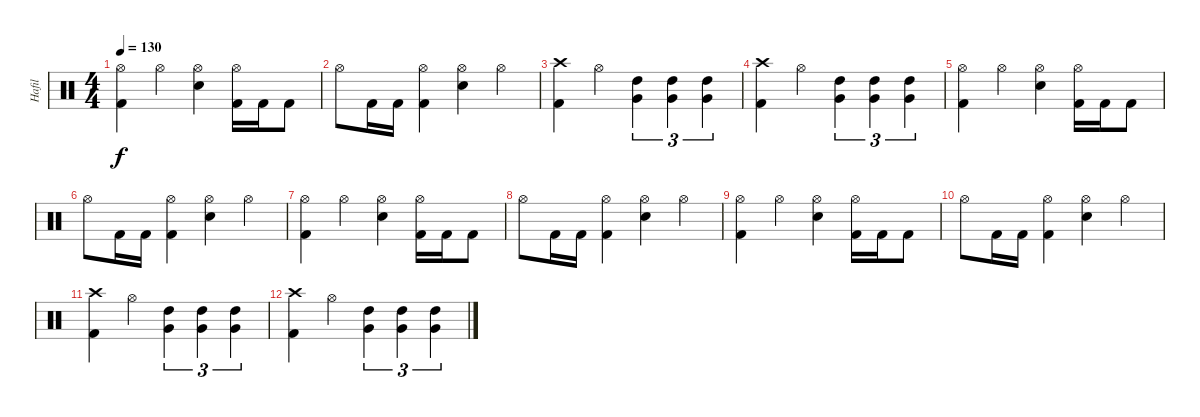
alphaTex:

\track ("Hafil" "Hafil") {instrument percussion}
\staff {score}
\articulation defaults
\ts (4 4)
\tempo 130
\clef neutral
\ks c
("Hi-Hat (open)" "Kick (hit) 2").4{dy f} "Hi-Hat (open)".4 ("Hi-Hat (open)" "Electric Snare (hit)").4 ("Hi-Hat (open)" "Kick (hit) 2").16 "Kick (hit) 2".16 "Kick (hit) 2".8 |
"Hi-Hat (open)".8 "Kick (hit) 2".16 "Kick (hit) 2".16 ("Kick (hit) 2" "Hi-Hat (open)").4 ("Hi-Hat (open)" "Electric Snare (hit)").4 "Hi-Hat (open)".4 |
("Kick (hit) 2" "Crash high (hit)").4 "Hi-Hat (open)".4 ("Very Low Tom (hit)" "High Tom (hit)").4{tu (3 2)} ("Very Low Tom (hit)" "High Tom (hit)").4{tu (3 2)} ("Very Low Tom (hit)" "High Tom (hit)").4{tu (3 2)} |
("Kick (hit) 2" "Crash high (hit)").4 "Hi-Hat (open)".4 ("Very Low Tom (hit)" "High Tom (hit)").4{tu (3 2)} ("Very Low Tom (hit)" "High Tom (hit)").4{tu (3 2)} ("Very Low Tom (hit)" "High Tom (hit)").4{tu (3 2)} |
("Hi-Hat (open)" "Kick (hit) 2").4 "Hi-Hat (open)".4 ("Hi-Hat (open)" "Electric Snare (hit)").4 ("Hi-Hat (open)" "Kick (hit) 2").16 "Kick (hit) 2".16 "Kick (hit) 2".8 |
"Hi-Hat (open)".8 "Kick (hit) 2".16 "Kick (hit) 2".16 ("Kick (hit) 2" "Hi-Hat (open)").4 ("Hi-Hat (open)" "Electric Snare (hit)").4 "Hi-Hat (open)".4 |
("Hi-Hat (open)" "Kick (hit) 2").4 "Hi-Hat (open)".4 ("Hi-Hat (open)" "Electric Snare (hit)").4 ("Hi-Hat (open)" "Kick (hit) 2").16 "Kick (hit) 2".16 "Kick (hit) 2".8 |
"Hi-Hat (open)".8 "Kick (hit) 2".16 "Kick (hit) 2".16 ("Kick (hit) 2" "Hi-Hat (open)").4 ("Hi-Hat (open)" "Electric Snare (hit)").4 "Hi-Hat (open)".4 |
("Hi-Hat (open)" "Kick (hit) 2").4 "Hi-Hat (open)".4 ("Hi-Hat (open)" "Electric Snare (hit)").4 ("Hi-Hat (open)" "Kick (hit) 2").16 "Kick (hit) 2".16 "Kick (hit) 2".8 |
"Hi-Hat (open)".8 "Kick (hit) 2".16 "Kick (hit) 2".16 ("Kick (hit) 2" "Hi-Hat (open)").4 ("Hi-Hat (open)" "Electric Snare (hit)").4 "Hi-Hat (open)".4 |
("Kick (hit) 2" "Crash high (hit)").4 "Hi-Hat (open)".4 ("Very Low Tom (hit)" "High Tom (hit)").4{tu (3 2)} ("Very Low Tom (hit)" "High Tom (hit)").4{tu (3 2)} ("Very Low Tom (hit)" "High Tom (hit)").4{tu (3 2)} |
("Kick (hit) 2" "Crash high (hit)").4 "Hi-Hat (open)".4 ("Very Low Tom (hit)" "High Tom (hit)").4{tu (3 2)} ("Very Low Tom (hit)" "High Tom (hit)").4{tu (3 2)} ("Very Low Tom (hit)" "High Tom (hit)").4{tu (3 2)}
